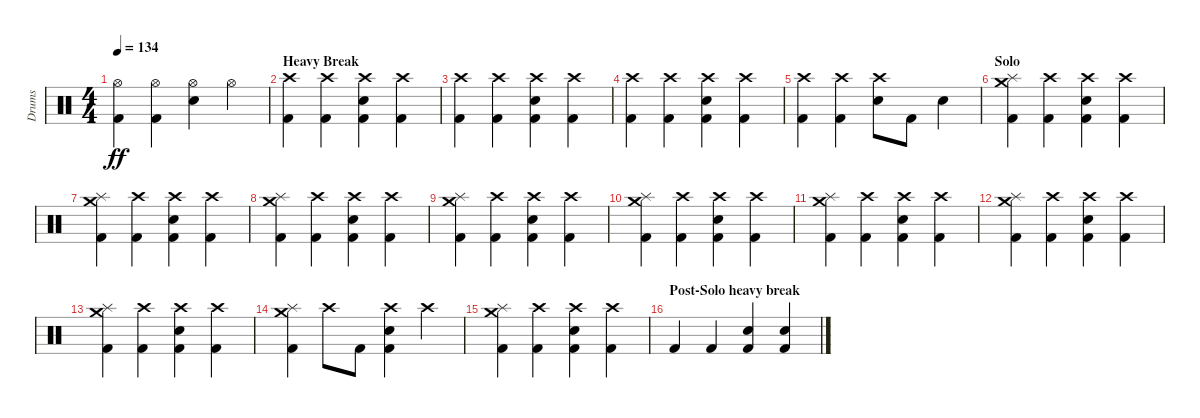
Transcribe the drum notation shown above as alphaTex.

\track ("Drums" "Drums") {instrument percussion}
\staff {score}
\articulation defaults
\ts (4 4)
\tempo 134
\clef neutral
\ks c
("Hi-Hat (open)" "Kick (hit) 2").4{dy ff} ("Hi-Hat (open)" "Kick (hit) 2").4 ("Hi-Hat (open)" "Snare (hit) 2").4 "Hi-Hat (open)".4 |
\section ("" "Heavy Break")
("Crash high (hit)" "Kick (hit) 2").4 ("Crash high (hit)" "Kick (hit) 2").4 ("Crash high (hit)" "Snare (hit) 2" "Kick (hit) 2").4 ("Crash high (hit)" "Kick (hit) 2").4 |
("Crash high (hit)" "Kick (hit) 2").4 ("Crash high (hit)" "Kick (hit) 2").4 ("Crash high (hit)" "Snare (hit) 2" "Kick (hit) 2").4 ("Crash high (hit)" "Kick (hit) 2").4 |
("Crash high (hit)" "Kick (hit) 2").4 ("Crash high (hit)" "Kick (hit) 2").4 ("Crash high (hit)" "Snare (hit) 2" "Kick (hit) 2").4 ("Crash high (hit)" "Kick (hit) 2").4 |
("Crash high (hit)" "Kick (hit) 2").4 ("Crash high (hit)" "Kick (hit) 2").4 ("Crash high (hit)" "Snare (hit) 2").8 "Kick (hit) 2".8 "Snare (hit) 2".4 |
\section ("" "Solo")
("Crash medium (hit)" "Splash (hit)" "Kick (hit) 2").4 ("Crash high (hit)" "Kick (hit) 2").4 ("Crash high (hit)" "Snare (hit) 2" "Kick (hit) 2").4 ("Crash high (hit)" "Kick (hit) 2").4 |
("Crash medium (hit)" "Splash (hit)" "Kick (hit) 2").4 ("Crash high (hit)" "Kick (hit) 2").4 ("Crash high (hit)" "Snare (hit) 2" "Kick (hit) 2").4 ("Crash high (hit)" "Kick (hit) 2").4 |
("Crash medium (hit)" "Splash (hit)" "Kick (hit) 2").4 ("Crash high (hit)" "Kick (hit) 2").4 ("Crash high (hit)" "Snare (hit) 2" "Kick (hit) 2").4 ("Crash high (hit)" "Kick (hit) 2").4 |
("Crash medium (hit)" "Splash (hit)" "Kick (hit) 2").4 ("Crash high (hit)" "Kick (hit) 2").4 ("Crash high (hit)" "Snare (hit) 2" "Kick (hit) 2").4 ("Crash high (hit)" "Kick (hit) 2").4 |
("Crash medium (hit)" "Splash (hit)" "Kick (hit) 2").4 ("Crash high (hit)" "Kick (hit) 2").4 ("Crash high (hit)" "Snare (hit) 2" "Kick (hit) 2").4 ("Crash high (hit)" "Kick (hit) 2").4 |
("Crash medium (hit)" "Splash (hit)" "Kick (hit) 2").4 ("Crash high (hit)" "Kick (hit) 2").4 ("Crash high (hit)" "Snare (hit) 2" "Kick (hit) 2").4 ("Crash high (hit)" "Kick (hit) 2").4 |
("Crash medium (hit)" "Splash (hit)" "Kick (hit) 2").4 ("Crash high (hit)" "Kick (hit) 2").4 ("Crash high (hit)" "Snare (hit) 2" "Kick (hit) 2").4 ("Crash high (hit)" "Kick (hit) 2").4 |
("Crash medium (hit)" "Splash (hit)" "Kick (hit) 2").4 ("Crash high (hit)" "Kick (hit) 2").4 ("Crash high (hit)" "Snare (hit) 2" "Kick (hit) 2").4 ("Crash high (hit)" "Kick (hit) 2").4 |
("Crash medium (hit)" "Splash (hit)" "Kick (hit) 2").4 "Crash high (hit)".8 "Kick (hit) 2".8 ("Crash high (hit)" "Snare (hit) 2" "Kick (hit) 2").4 "Crash high (hit)".4 |
("Crash medium (hit)" "Splash (hit)" "Kick (hit) 2").4 ("Crash high (hit)" "Kick (hit) 2").4 ("Crash high (hit)" "Snare (hit) 2" "Kick (hit) 2").4 ("Crash high (hit)" "Kick (hit) 2").4 |
\section ("" "Post-Solo heavy break")
"Kick (hit) 2".4 "Kick (hit) 2".4 ("Snare (hit) 2" "Kick (hit) 2").4 ("Snare (hit) 2" "Kick (hit) 2").4
